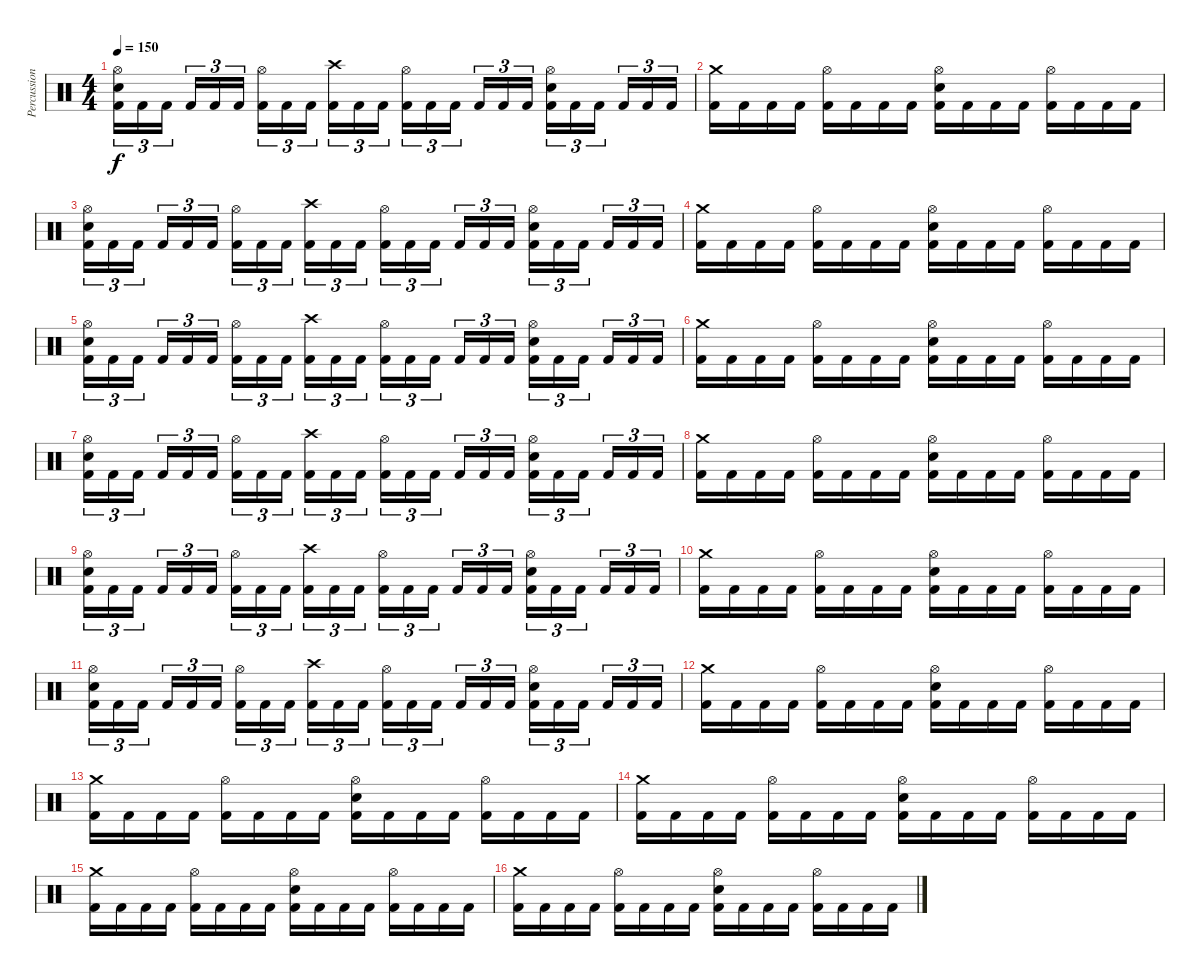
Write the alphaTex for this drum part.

\track ("Percussion" "Percussion") {instrument percussion}
\staff {score}
\articulation defaults
\ts (4 4)
\tempo 150
\clef neutral
\ks c
("Hi-Hat (open)" "Snare (hit) 2" "Kick (hit) 2").16{tu (3 2) dy f} "Kick (hit) 2".16{tu (3 2)} "Kick (hit) 2".16{tu (3 2) beam splitsecondary} "Kick (hit) 2".16{tu (3 2)} "Kick (hit) 2".16{tu (3 2)} "Kick (hit) 2".16{tu (3 2)} ("Hi-Hat (open)" "Kick (hit) 2").16{tu (3 2)} "Kick (hit) 2".16{tu (3 2)} "Kick (hit) 2".16{tu (3 2) beam splitsecondary} ("Crash high (hit)" "Kick (hit) 2").16{tu (3 2)} "Kick (hit) 2".16{tu (3 2)} "Kick (hit) 2".16{tu (3 2)} ("Hi-Hat (open)" "Kick (hit) 2").16{tu (3 2)} "Kick (hit) 2".16{tu (3 2)} "Kick (hit) 2".16{tu (3 2) beam splitsecondary} "Kick (hit) 2".16{tu (3 2)} "Kick (hit) 2".16{tu (3 2)} "Kick (hit) 2".16{tu (3 2)} ("Hi-Hat (open)" "Snare (hit) 2" "Kick (hit) 2").16{tu (3 2)} "Kick (hit) 2".16{tu (3 2)} "Kick (hit) 2".16{tu (3 2) beam splitsecondary} "Kick (hit) 2".16{tu (3 2)} "Kick (hit) 2".16{tu (3 2)} "Kick (hit) 2".16{tu (3 2)} |
("Crash medium (hit)" "Kick (hit) 2").16 "Kick (hit) 2".16 "Kick (hit) 2".16 "Kick (hit) 2".16 ("Hi-Hat (open)" "Kick (hit) 2").16 "Kick (hit) 2".16 "Kick (hit) 2".16 "Kick (hit) 2".16 ("Hi-Hat (open)" "Snare (hit) 2" "Kick (hit) 2").16 "Kick (hit) 2".16 "Kick (hit) 2".16 "Kick (hit) 2".16 ("Hi-Hat (open)" "Kick (hit) 2").16 "Kick (hit) 2".16 "Kick (hit) 2".16 "Kick (hit) 2".16 |
("Hi-Hat (open)" "Snare (hit) 2" "Kick (hit) 2").16{tu (3 2)} "Kick (hit) 2".16{tu (3 2)} "Kick (hit) 2".16{tu (3 2) beam splitsecondary} "Kick (hit) 2".16{tu (3 2)} "Kick (hit) 2".16{tu (3 2)} "Kick (hit) 2".16{tu (3 2)} ("Hi-Hat (open)" "Kick (hit) 2").16{tu (3 2)} "Kick (hit) 2".16{tu (3 2)} "Kick (hit) 2".16{tu (3 2) beam splitsecondary} ("Crash high (hit)" "Kick (hit) 2").16{tu (3 2)} "Kick (hit) 2".16{tu (3 2)} "Kick (hit) 2".16{tu (3 2)} ("Hi-Hat (open)" "Kick (hit) 2").16{tu (3 2)} "Kick (hit) 2".16{tu (3 2)} "Kick (hit) 2".16{tu (3 2) beam splitsecondary} "Kick (hit) 2".16{tu (3 2)} "Kick (hit) 2".16{tu (3 2)} "Kick (hit) 2".16{tu (3 2)} ("Hi-Hat (open)" "Snare (hit) 2" "Kick (hit) 2").16{tu (3 2)} "Kick (hit) 2".16{tu (3 2)} "Kick (hit) 2".16{tu (3 2) beam splitsecondary} "Kick (hit) 2".16{tu (3 2)} "Kick (hit) 2".16{tu (3 2)} "Kick (hit) 2".16{tu (3 2)} |
("Crash medium (hit)" "Kick (hit) 2").16 "Kick (hit) 2".16 "Kick (hit) 2".16 "Kick (hit) 2".16 ("Hi-Hat (open)" "Kick (hit) 2").16 "Kick (hit) 2".16 "Kick (hit) 2".16 "Kick (hit) 2".16 ("Hi-Hat (open)" "Snare (hit) 2" "Kick (hit) 2").16 "Kick (hit) 2".16 "Kick (hit) 2".16 "Kick (hit) 2".16 ("Hi-Hat (open)" "Kick (hit) 2").16 "Kick (hit) 2".16 "Kick (hit) 2".16 "Kick (hit) 2".16 |
("Hi-Hat (open)" "Snare (hit) 2" "Kick (hit) 2").16{tu (3 2)} "Kick (hit) 2".16{tu (3 2)} "Kick (hit) 2".16{tu (3 2) beam splitsecondary} "Kick (hit) 2".16{tu (3 2)} "Kick (hit) 2".16{tu (3 2)} "Kick (hit) 2".16{tu (3 2)} ("Hi-Hat (open)" "Kick (hit) 2").16{tu (3 2)} "Kick (hit) 2".16{tu (3 2)} "Kick (hit) 2".16{tu (3 2) beam splitsecondary} ("Crash high (hit)" "Kick (hit) 2").16{tu (3 2)} "Kick (hit) 2".16{tu (3 2)} "Kick (hit) 2".16{tu (3 2)} ("Hi-Hat (open)" "Kick (hit) 2").16{tu (3 2)} "Kick (hit) 2".16{tu (3 2)} "Kick (hit) 2".16{tu (3 2) beam splitsecondary} "Kick (hit) 2".16{tu (3 2)} "Kick (hit) 2".16{tu (3 2)} "Kick (hit) 2".16{tu (3 2)} ("Hi-Hat (open)" "Snare (hit) 2" "Kick (hit) 2").16{tu (3 2)} "Kick (hit) 2".16{tu (3 2)} "Kick (hit) 2".16{tu (3 2) beam splitsecondary} "Kick (hit) 2".16{tu (3 2)} "Kick (hit) 2".16{tu (3 2)} "Kick (hit) 2".16{tu (3 2)} |
("Crash medium (hit)" "Kick (hit) 2").16 "Kick (hit) 2".16 "Kick (hit) 2".16 "Kick (hit) 2".16 ("Hi-Hat (open)" "Kick (hit) 2").16 "Kick (hit) 2".16 "Kick (hit) 2".16 "Kick (hit) 2".16 ("Hi-Hat (open)" "Snare (hit) 2" "Kick (hit) 2").16 "Kick (hit) 2".16 "Kick (hit) 2".16 "Kick (hit) 2".16 ("Hi-Hat (open)" "Kick (hit) 2").16 "Kick (hit) 2".16 "Kick (hit) 2".16 "Kick (hit) 2".16 |
("Hi-Hat (open)" "Snare (hit) 2" "Kick (hit) 2").16{tu (3 2)} "Kick (hit) 2".16{tu (3 2)} "Kick (hit) 2".16{tu (3 2) beam splitsecondary} "Kick (hit) 2".16{tu (3 2)} "Kick (hit) 2".16{tu (3 2)} "Kick (hit) 2".16{tu (3 2)} ("Hi-Hat (open)" "Kick (hit) 2").16{tu (3 2)} "Kick (hit) 2".16{tu (3 2)} "Kick (hit) 2".16{tu (3 2) beam splitsecondary} ("Crash high (hit)" "Kick (hit) 2").16{tu (3 2)} "Kick (hit) 2".16{tu (3 2)} "Kick (hit) 2".16{tu (3 2)} ("Hi-Hat (open)" "Kick (hit) 2").16{tu (3 2)} "Kick (hit) 2".16{tu (3 2)} "Kick (hit) 2".16{tu (3 2) beam splitsecondary} "Kick (hit) 2".16{tu (3 2)} "Kick (hit) 2".16{tu (3 2)} "Kick (hit) 2".16{tu (3 2)} ("Hi-Hat (open)" "Snare (hit) 2" "Kick (hit) 2").16{tu (3 2)} "Kick (hit) 2".16{tu (3 2)} "Kick (hit) 2".16{tu (3 2) beam splitsecondary} "Kick (hit) 2".16{tu (3 2)} "Kick (hit) 2".16{tu (3 2)} "Kick (hit) 2".16{tu (3 2)} |
("Crash medium (hit)" "Kick (hit) 2").16 "Kick (hit) 2".16 "Kick (hit) 2".16 "Kick (hit) 2".16 ("Hi-Hat (open)" "Kick (hit) 2").16 "Kick (hit) 2".16 "Kick (hit) 2".16 "Kick (hit) 2".16 ("Hi-Hat (open)" "Snare (hit) 2" "Kick (hit) 2").16 "Kick (hit) 2".16 "Kick (hit) 2".16 "Kick (hit) 2".16 ("Hi-Hat (open)" "Kick (hit) 2").16 "Kick (hit) 2".16 "Kick (hit) 2".16 "Kick (hit) 2".16 |
("Hi-Hat (open)" "Snare (hit) 2" "Kick (hit) 2").16{tu (3 2)} "Kick (hit) 2".16{tu (3 2)} "Kick (hit) 2".16{tu (3 2) beam splitsecondary} "Kick (hit) 2".16{tu (3 2)} "Kick (hit) 2".16{tu (3 2)} "Kick (hit) 2".16{tu (3 2)} ("Hi-Hat (open)" "Kick (hit) 2").16{tu (3 2)} "Kick (hit) 2".16{tu (3 2)} "Kick (hit) 2".16{tu (3 2) beam splitsecondary} ("Crash high (hit)" "Kick (hit) 2").16{tu (3 2)} "Kick (hit) 2".16{tu (3 2)} "Kick (hit) 2".16{tu (3 2)} ("Hi-Hat (open)" "Kick (hit) 2").16{tu (3 2)} "Kick (hit) 2".16{tu (3 2)} "Kick (hit) 2".16{tu (3 2) beam splitsecondary} "Kick (hit) 2".16{tu (3 2)} "Kick (hit) 2".16{tu (3 2)} "Kick (hit) 2".16{tu (3 2)} ("Hi-Hat (open)" "Snare (hit) 2" "Kick (hit) 2").16{tu (3 2)} "Kick (hit) 2".16{tu (3 2)} "Kick (hit) 2".16{tu (3 2) beam splitsecondary} "Kick (hit) 2".16{tu (3 2)} "Kick (hit) 2".16{tu (3 2)} "Kick (hit) 2".16{tu (3 2)} |
("Crash medium (hit)" "Kick (hit) 2").16 "Kick (hit) 2".16 "Kick (hit) 2".16 "Kick (hit) 2".16 ("Hi-Hat (open)" "Kick (hit) 2").16 "Kick (hit) 2".16 "Kick (hit) 2".16 "Kick (hit) 2".16 ("Hi-Hat (open)" "Snare (hit) 2" "Kick (hit) 2").16 "Kick (hit) 2".16 "Kick (hit) 2".16 "Kick (hit) 2".16 ("Hi-Hat (open)" "Kick (hit) 2").16 "Kick (hit) 2".16 "Kick (hit) 2".16 "Kick (hit) 2".16 |
("Hi-Hat (open)" "Snare (hit) 2" "Kick (hit) 2").16{tu (3 2)} "Kick (hit) 2".16{tu (3 2)} "Kick (hit) 2".16{tu (3 2) beam splitsecondary} "Kick (hit) 2".16{tu (3 2)} "Kick (hit) 2".16{tu (3 2)} "Kick (hit) 2".16{tu (3 2)} ("Hi-Hat (open)" "Kick (hit) 2").16{tu (3 2)} "Kick (hit) 2".16{tu (3 2)} "Kick (hit) 2".16{tu (3 2) beam splitsecondary} ("Crash high (hit)" "Kick (hit) 2").16{tu (3 2)} "Kick (hit) 2".16{tu (3 2)} "Kick (hit) 2".16{tu (3 2)} ("Hi-Hat (open)" "Kick (hit) 2").16{tu (3 2)} "Kick (hit) 2".16{tu (3 2)} "Kick (hit) 2".16{tu (3 2) beam splitsecondary} "Kick (hit) 2".16{tu (3 2)} "Kick (hit) 2".16{tu (3 2)} "Kick (hit) 2".16{tu (3 2)} ("Hi-Hat (open)" "Snare (hit) 2" "Kick (hit) 2").16{tu (3 2)} "Kick (hit) 2".16{tu (3 2)} "Kick (hit) 2".16{tu (3 2) beam splitsecondary} "Kick (hit) 2".16{tu (3 2)} "Kick (hit) 2".16{tu (3 2)} "Kick (hit) 2".16{tu (3 2)} |
("Crash medium (hit)" "Kick (hit) 2").16 "Kick (hit) 2".16 "Kick (hit) 2".16 "Kick (hit) 2".16 ("Hi-Hat (open)" "Kick (hit) 2").16 "Kick (hit) 2".16 "Kick (hit) 2".16 "Kick (hit) 2".16 ("Hi-Hat (open)" "Snare (hit) 2" "Kick (hit) 2").16 "Kick (hit) 2".16 "Kick (hit) 2".16 "Kick (hit) 2".16 ("Hi-Hat (open)" "Kick (hit) 2").16 "Kick (hit) 2".16 "Kick (hit) 2".16 "Kick (hit) 2".16 |
("Crash medium (hit)" "Kick (hit) 2").16 "Kick (hit) 2".16 "Kick (hit) 2".16 "Kick (hit) 2".16 ("Hi-Hat (open)" "Kick (hit) 2").16 "Kick (hit) 2".16 "Kick (hit) 2".16 "Kick (hit) 2".16 ("Hi-Hat (open)" "Snare (hit) 2" "Kick (hit) 2").16 "Kick (hit) 2".16 "Kick (hit) 2".16 "Kick (hit) 2".16 ("Hi-Hat (open)" "Kick (hit) 2").16 "Kick (hit) 2".16 "Kick (hit) 2".16 "Kick (hit) 2".16 |
("Crash medium (hit)" "Kick (hit) 2").16 "Kick (hit) 2".16 "Kick (hit) 2".16 "Kick (hit) 2".16 ("Hi-Hat (open)" "Kick (hit) 2").16 "Kick (hit) 2".16 "Kick (hit) 2".16 "Kick (hit) 2".16 ("Hi-Hat (open)" "Snare (hit) 2" "Kick (hit) 2").16 "Kick (hit) 2".16 "Kick (hit) 2".16 "Kick (hit) 2".16 ("Hi-Hat (open)" "Kick (hit) 2").16 "Kick (hit) 2".16 "Kick (hit) 2".16 "Kick (hit) 2".16 |
("Crash medium (hit)" "Kick (hit) 2").16 "Kick (hit) 2".16 "Kick (hit) 2".16 "Kick (hit) 2".16 ("Hi-Hat (open)" "Kick (hit) 2").16 "Kick (hit) 2".16 "Kick (hit) 2".16 "Kick (hit) 2".16 ("Hi-Hat (open)" "Snare (hit) 2" "Kick (hit) 2").16 "Kick (hit) 2".16 "Kick (hit) 2".16 "Kick (hit) 2".16 ("Hi-Hat (open)" "Kick (hit) 2").16 "Kick (hit) 2".16 "Kick (hit) 2".16 "Kick (hit) 2".16 |
("Crash medium (hit)" "Kick (hit) 2").16 "Kick (hit) 2".16 "Kick (hit) 2".16 "Kick (hit) 2".16 ("Hi-Hat (open)" "Kick (hit) 2").16 "Kick (hit) 2".16 "Kick (hit) 2".16 "Kick (hit) 2".16 ("Hi-Hat (open)" "Snare (hit) 2" "Kick (hit) 2").16 "Kick (hit) 2".16 "Kick (hit) 2".16 "Kick (hit) 2".16 ("Hi-Hat (open)" "Kick (hit) 2").16 "Kick (hit) 2".16 "Kick (hit) 2".16 "Kick (hit) 2".16
